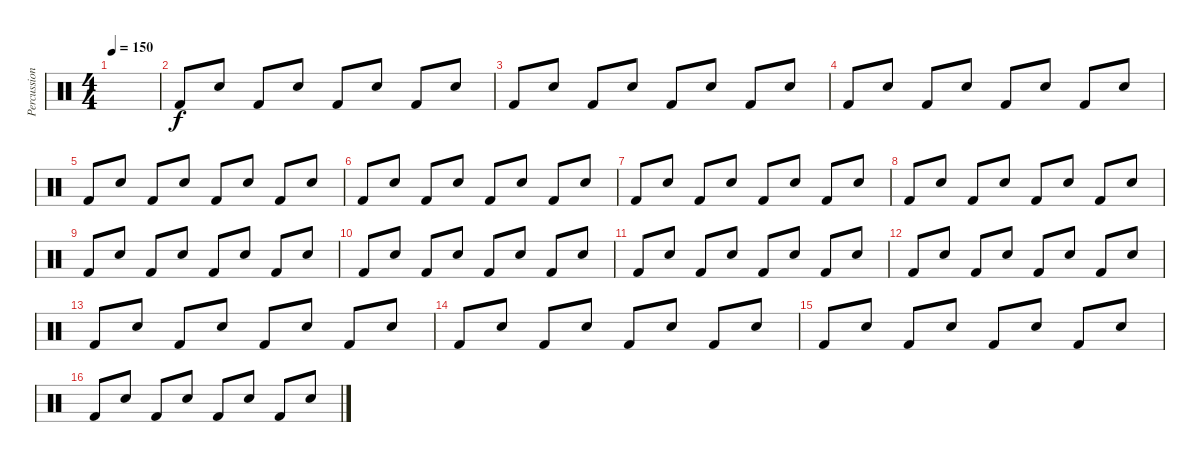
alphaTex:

\track ("Percussion" "Percussion") {instrument percussion}
\staff {score}
\articulation defaults
\ts (4 4)
\tempo 150
\clef neutral
\ks c
|
"Kick (hit) 2".8 "Electric Snare (hit)".8 "Kick (hit) 2".8 "Electric Snare (hit)".8 "Kick (hit) 2".8 "Electric Snare (hit)".8 "Kick (hit) 2".8 "Electric Snare (hit)".8 |
"Kick (hit) 2".8 "Electric Snare (hit)".8 "Kick (hit) 2".8 "Electric Snare (hit)".8 "Kick (hit) 2".8 "Electric Snare (hit)".8 "Kick (hit) 2".8 "Electric Snare (hit)".8 |
"Kick (hit) 2".8 "Electric Snare (hit)".8 "Kick (hit) 2".8 "Electric Snare (hit)".8 "Kick (hit) 2".8 "Electric Snare (hit)".8 "Kick (hit) 2".8 "Electric Snare (hit)".8 |
"Kick (hit) 2".8 "Electric Snare (hit)".8 "Kick (hit) 2".8 "Electric Snare (hit)".8 "Kick (hit) 2".8 "Electric Snare (hit)".8 "Kick (hit) 2".8 "Electric Snare (hit)".8 |
"Kick (hit) 2".8 "Electric Snare (hit)".8 "Kick (hit) 2".8 "Electric Snare (hit)".8 "Kick (hit) 2".8 "Electric Snare (hit)".8 "Kick (hit) 2".8 "Electric Snare (hit)".8 |
"Kick (hit) 2".8 "Electric Snare (hit)".8 "Kick (hit) 2".8 "Electric Snare (hit)".8 "Kick (hit) 2".8 "Electric Snare (hit)".8 "Kick (hit) 2".8 "Electric Snare (hit)".8 |
"Kick (hit) 2".8 "Electric Snare (hit)".8 "Kick (hit) 2".8 "Electric Snare (hit)".8 "Kick (hit) 2".8 "Electric Snare (hit)".8 "Kick (hit) 2".8 "Electric Snare (hit)".8 |
"Kick (hit) 2".8 "Electric Snare (hit)".8 "Kick (hit) 2".8 "Electric Snare (hit)".8 "Kick (hit) 2".8 "Electric Snare (hit)".8 "Kick (hit) 2".8 "Electric Snare (hit)".8 |
"Kick (hit) 2".8 "Electric Snare (hit)".8 "Kick (hit) 2".8 "Electric Snare (hit)".8 "Kick (hit) 2".8 "Electric Snare (hit)".8 "Kick (hit) 2".8 "Electric Snare (hit)".8 |
"Kick (hit) 2".8 "Electric Snare (hit)".8 "Kick (hit) 2".8 "Electric Snare (hit)".8 "Kick (hit) 2".8 "Electric Snare (hit)".8 "Kick (hit) 2".8 "Electric Snare (hit)".8 |
"Kick (hit) 2".8 "Electric Snare (hit)".8 "Kick (hit) 2".8 "Electric Snare (hit)".8 "Kick (hit) 2".8 "Electric Snare (hit)".8 "Kick (hit) 2".8 "Electric Snare (hit)".8 |
"Kick (hit) 2".8 "Electric Snare (hit)".8 "Kick (hit) 2".8 "Electric Snare (hit)".8 "Kick (hit) 2".8 "Electric Snare (hit)".8 "Kick (hit) 2".8 "Electric Snare (hit)".8 |
"Kick (hit) 2".8 "Electric Snare (hit)".8 "Kick (hit) 2".8 "Electric Snare (hit)".8 "Kick (hit) 2".8 "Electric Snare (hit)".8 "Kick (hit) 2".8 "Electric Snare (hit)".8 |
"Kick (hit) 2".8 "Electric Snare (hit)".8 "Kick (hit) 2".8 "Electric Snare (hit)".8 "Kick (hit) 2".8 "Electric Snare (hit)".8 "Kick (hit) 2".8 "Electric Snare (hit)".8 |
"Kick (hit) 2".8 "Electric Snare (hit)".8 "Kick (hit) 2".8 "Electric Snare (hit)".8 "Kick (hit) 2".8 "Electric Snare (hit)".8 "Kick (hit) 2".8 "Electric Snare (hit)".8
